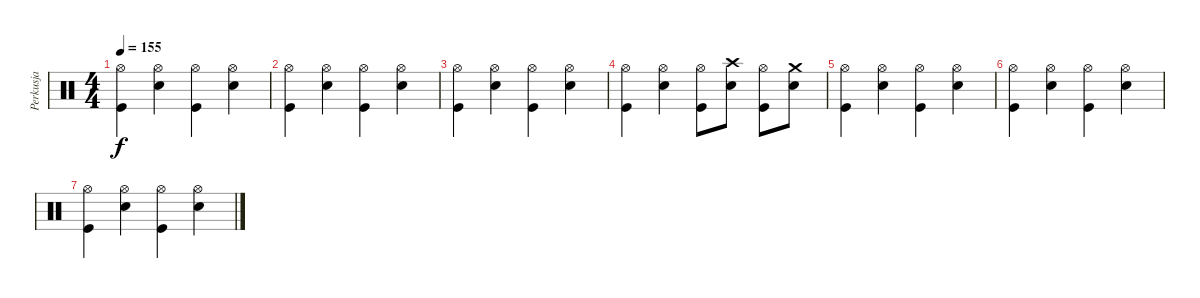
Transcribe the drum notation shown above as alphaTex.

\track ("Perkusja" "Perkusja") {instrument percussion}
\staff {score}
\articulation defaults
\ts (4 4)
\tempo 155
\clef neutral
\ks c
("Hi-Hat (open)" "Kick (hit)").4{dy f} ("Hi-Hat (open)" "Snare (hit) 2").4 ("Hi-Hat (open)" "Kick (hit)").4 ("Hi-Hat (open)" "Snare (hit) 2").4 |
("Kick (hit)" "Hi-Hat (open)").4 ("Hi-Hat (open)" "Snare (hit) 2").4 ("Kick (hit)" "Hi-Hat (open)").4 ("Snare (hit) 2" "Hi-Hat (open)").4 |
("Kick (hit)" "Hi-Hat (open)").4 ("Hi-Hat (open)" "Snare (hit) 2").4 ("Kick (hit)" "Hi-Hat (open)").4 ("Snare (hit) 2" "Hi-Hat (open)").4 |
("Kick (hit)" "Hi-Hat (open)").4 ("Hi-Hat (open)" "Snare (hit) 2").4 ("Hi-Hat (open)" "Kick (hit)").8 ("Crash high (hit)" "Snare (hit) 2").8 ("Kick (hit)" "Hi-Hat (open)").8 ("Snare (hit) 2" "Crash medium (hit)").8 |
("Hi-Hat (open)" "Kick (hit)").4 ("Hi-Hat (open)" "Snare (hit) 2").4 ("Hi-Hat (open)" "Kick (hit)").4 ("Hi-Hat (open)" "Snare (hit) 2").4 |
("Kick (hit)" "Hi-Hat (open)").4 ("Hi-Hat (open)" "Snare (hit) 2").4 ("Kick (hit)" "Hi-Hat (open)").4 ("Snare (hit) 2" "Hi-Hat (open)").4 |
("Kick (hit)" "Hi-Hat (open)").4 ("Hi-Hat (open)" "Snare (hit) 2").4 ("Kick (hit)" "Hi-Hat (open)").4 ("Snare (hit) 2" "Hi-Hat (open)").4
